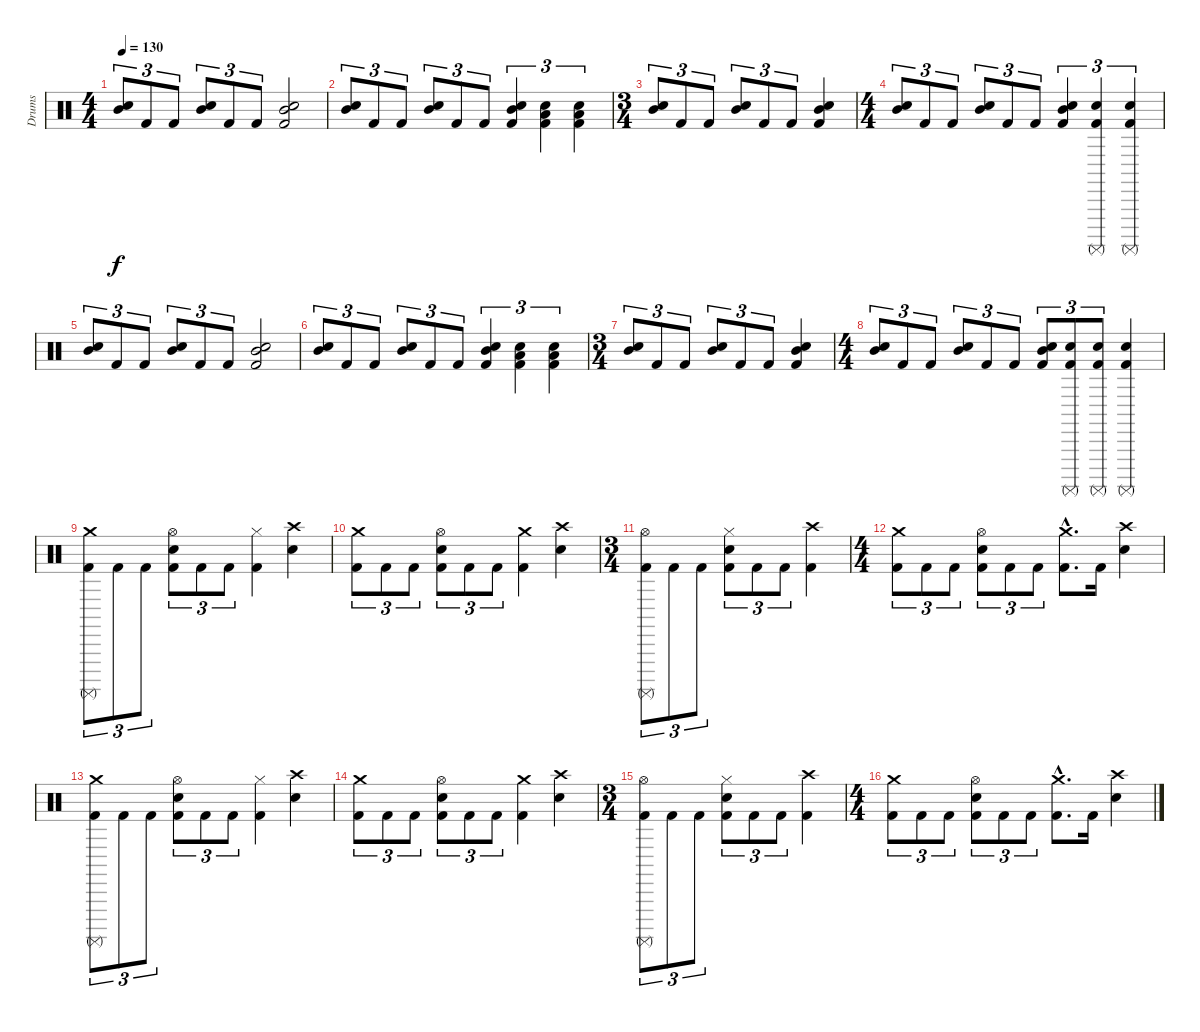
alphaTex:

\track ("Drums" "Drums") {instrument percussion}
\staff {score}
\articulation defaults
\ts (4 4)
\tempo 130
\clef neutral
\ks c
("Electric Snare (hit)" "Mid Tom (hit)").8{tu (3 2) dy f} "Kick (hit) 2".8{tu (3 2)} "Kick (hit) 2".8{tu (3 2)} ("Electric Snare (hit)" "Mid Tom (hit)").8{tu (3 2)} "Kick (hit) 2".8{tu (3 2)} "Kick (hit) 2".8{tu (3 2)} ("Electric Snare (hit)" "Mid Tom (hit)" "Kick (hit) 2").2 |
("Electric Snare (hit)" "Mid Tom (hit)").8{tu (3 2)} "Kick (hit) 2".8{tu (3 2)} "Kick (hit) 2".8{tu (3 2)} ("Electric Snare (hit)" "Mid Tom (hit)").8{tu (3 2)} "Kick (hit) 2".8{tu (3 2)} "Kick (hit) 2".8{tu (3 2)} ("Electric Snare (hit)" "Mid Tom (hit)" "Kick (hit) 2").4{tu (3 2)} ("Electric Snare (hit)" "Low Tom (hit)" "Kick (hit) 2").4{tu (3 2)} ("Electric Snare (hit)" "Low Tom (hit)" "Kick (hit) 2").4{tu (3 2)} |
\ts (3 4)
("Electric Snare (hit)" "Mid Tom (hit)").8{tu (3 2)} "Kick (hit) 2".8{tu (3 2)} "Kick (hit) 2".8{tu (3 2)} ("Electric Snare (hit)" "Mid Tom (hit)").8{tu (3 2)} "Kick (hit) 2".8{tu (3 2)} "Kick (hit) 2".8{tu (3 2)} ("Electric Snare (hit)" "Mid Tom (hit)" "Kick (hit) 2").4 |
\ts (4 4)
("Electric Snare (hit)" "Mid Tom (hit)").8{tu (3 2)} "Kick (hit) 2".8{tu (3 2)} "Kick (hit) 2".8{tu (3 2)} ("Electric Snare (hit)" "Mid Tom (hit)").8{tu (3 2)} "Kick (hit) 2".8{tu (3 2)} "Kick (hit) 2".8{tu (3 2)} ("Electric Snare (hit)" "Mid Tom (hit)" "Kick (hit) 2").4{tu (3 2)} ("Electric Snare (hit)" "Surdo (mute)" "Kick (hit) 2").4{tu (3 2)} ("Electric Snare (hit)" "Surdo (mute)" "Kick (hit) 2").4{tu (3 2)} |
("Electric Snare (hit)" "Mid Tom (hit)").8{tu (3 2)} "Kick (hit) 2".8{tu (3 2)} "Kick (hit) 2".8{tu (3 2)} ("Electric Snare (hit)" "Mid Tom (hit)").8{tu (3 2)} "Kick (hit) 2".8{tu (3 2)} "Kick (hit) 2".8{tu (3 2)} ("Electric Snare (hit)" "Mid Tom (hit)" "Kick (hit) 2").2 |
("Electric Snare (hit)" "Mid Tom (hit)").8{tu (3 2)} "Kick (hit) 2".8{tu (3 2)} "Kick (hit) 2".8{tu (3 2)} ("Electric Snare (hit)" "Mid Tom (hit)").8{tu (3 2)} "Kick (hit) 2".8{tu (3 2)} "Kick (hit) 2".8{tu (3 2)} ("Electric Snare (hit)" "Mid Tom (hit)" "Kick (hit) 2").4{tu (3 2)} ("Electric Snare (hit)" "Low Tom (hit)" "Kick (hit) 2").4{tu (3 2)} ("Electric Snare (hit)" "Low Tom (hit)" "Kick (hit) 2").4{tu (3 2)} |
\ts (3 4)
("Electric Snare (hit)" "Mid Tom (hit)").8{tu (3 2)} "Kick (hit) 2".8{tu (3 2)} "Kick (hit) 2".8{tu (3 2)} ("Electric Snare (hit)" "Mid Tom (hit)").8{tu (3 2)} "Kick (hit) 2".8{tu (3 2)} "Kick (hit) 2".8{tu (3 2)} ("Electric Snare (hit)" "Mid Tom (hit)" "Kick (hit) 2").4 |
\ts (4 4)
("Electric Snare (hit)" "Mid Tom (hit)").8{tu (3 2)} "Kick (hit) 2".8{tu (3 2)} "Kick (hit) 2".8{tu (3 2)} ("Electric Snare (hit)" "Mid Tom (hit)").8{tu (3 2)} "Kick (hit) 2".8{tu (3 2)} "Kick (hit) 2".8{tu (3 2)} ("Electric Snare (hit)" "Mid Tom (hit)" "Kick (hit) 2").8{tu (3 2)} ("Electric Snare (hit)" "Surdo (mute)" "Kick (hit) 2").8{tu (3 2)} ("Electric Snare (hit)" "Surdo (mute)" "Kick (hit) 2").8{tu (3 2)} ("Electric Snare (hit)" "Surdo (mute)" "Kick (hit) 2").4 |
("Crash medium (hit)" "Surdo (mute)" "Kick (hit) 2").8{tu (3 2)} "Kick (hit) 2".8{tu (3 2)} "Kick (hit) 2".8{tu (3 2)} ("Electric Snare (hit)" "Hi-Hat (open)" "Kick (hit) 2").8{tu (3 2)} "Kick (hit) 2".8{tu (3 2)} "Kick (hit) 2".8{tu (3 2)} ("Hi-Hat (closed)" "Kick (hit) 2").4 ("Crash high (hit)" "Electric Snare (hit)").4 |
("Crash medium (hit)" "Kick (hit) 2").8{tu (3 2)} "Kick (hit) 2".8{tu (3 2)} "Kick (hit) 2".8{tu (3 2)} ("Electric Snare (hit)" "Hi-Hat (open)" "Kick (hit) 2").8{tu (3 2)} "Kick (hit) 2".8{tu (3 2)} "Kick (hit) 2".8{tu (3 2)} ("Crash medium (hit)" "Kick (hit) 2").4 ("Crash high (hit)" "Electric Snare (hit)").4 |
\ts (3 4)
("Surdo (mute)" "Hi-Hat (open)" "Kick (hit) 2").8{tu (3 2)} "Kick (hit) 2".8{tu (3 2)} "Kick (hit) 2".8{tu (3 2)} ("Electric Snare (hit)" "Hi-Hat (closed)" "Kick (hit) 2").8{tu (3 2)} "Kick (hit) 2".8{tu (3 2)} "Kick (hit) 2".8{tu (3 2)} ("Crash high (hit)" "Kick (hit) 2").4 |
\ts (4 4)
("Crash medium (hit)" "Kick (hit) 2").8{tu (3 2)} "Kick (hit) 2".8{tu (3 2)} "Kick (hit) 2".8{tu (3 2)} ("Electric Snare (hit)" "Hi-Hat (open)" "Kick (hit) 2").8{tu (3 2)} "Kick (hit) 2".8{tu (3 2)} "Kick (hit) 2".8{tu (3 2)} ("Crash medium (hit)"{hac} "Kick (hit) 2"{hac}).8{d} "Kick (hit) 2".16 ("Crash high (hit)" "Electric Snare (hit)").4 |
("Crash medium (hit)" "Surdo (mute)" "Kick (hit) 2").8{tu (3 2)} "Kick (hit) 2".8{tu (3 2)} "Kick (hit) 2".8{tu (3 2)} ("Electric Snare (hit)" "Hi-Hat (open)" "Kick (hit) 2").8{tu (3 2)} "Kick (hit) 2".8{tu (3 2)} "Kick (hit) 2".8{tu (3 2)} ("Hi-Hat (closed)" "Kick (hit) 2").4 ("Crash high (hit)" "Electric Snare (hit)").4 |
("Crash medium (hit)" "Kick (hit) 2").8{tu (3 2)} "Kick (hit) 2".8{tu (3 2)} "Kick (hit) 2".8{tu (3 2)} ("Electric Snare (hit)" "Hi-Hat (open)" "Kick (hit) 2").8{tu (3 2)} "Kick (hit) 2".8{tu (3 2)} "Kick (hit) 2".8{tu (3 2)} ("Crash medium (hit)" "Kick (hit) 2").4 ("Crash high (hit)" "Electric Snare (hit)").4 |
\ts (3 4)
("Surdo (mute)" "Hi-Hat (open)" "Kick (hit) 2").8{tu (3 2)} "Kick (hit) 2".8{tu (3 2)} "Kick (hit) 2".8{tu (3 2)} ("Electric Snare (hit)" "Hi-Hat (closed)" "Kick (hit) 2").8{tu (3 2)} "Kick (hit) 2".8{tu (3 2)} "Kick (hit) 2".8{tu (3 2)} ("Crash high (hit)" "Kick (hit) 2").4 |
\ts (4 4)
("Crash medium (hit)" "Kick (hit) 2").8{tu (3 2)} "Kick (hit) 2".8{tu (3 2)} "Kick (hit) 2".8{tu (3 2)} ("Electric Snare (hit)" "Hi-Hat (open)" "Kick (hit) 2").8{tu (3 2)} "Kick (hit) 2".8{tu (3 2)} "Kick (hit) 2".8{tu (3 2)} ("Crash medium (hit)"{hac} "Kick (hit) 2"{hac}).8{d} "Kick (hit) 2".16 ("Crash high (hit)" "Electric Snare (hit)").4
